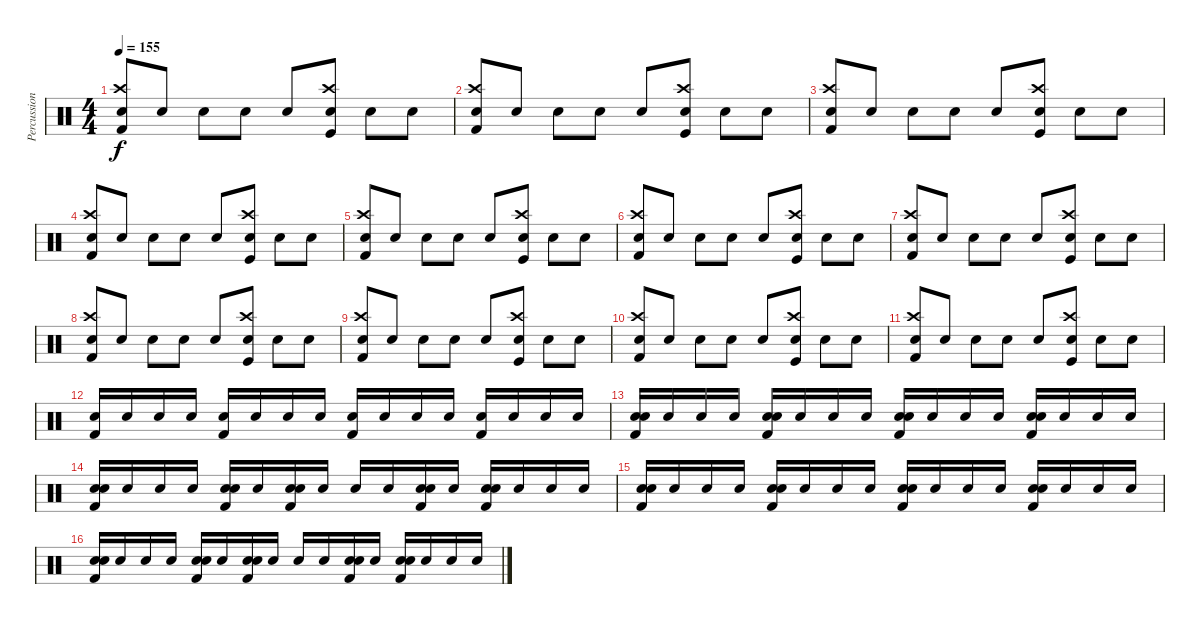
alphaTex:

\track ("Percussion" "Percussion") {instrument percussion}
\staff {score}
\articulation defaults
\ts (4 4)
\tempo 155
\clef neutral
\ks c
("Snare (hit) 2" "Crash high (hit)" "Kick (hit) 2").8{dy f} "Snare (hit) 2".8 "Snare (hit) 2".8 "Snare (hit) 2".8 "Snare (hit) 2".8 ("Snare (hit) 2" "Crash high (hit)" "Kick (hit)").8 "Snare (hit) 2".8 "Snare (hit) 2".8 |
("Snare (hit) 2" "Crash high (hit)" "Kick (hit) 2").8 "Snare (hit) 2".8 "Snare (hit) 2".8 "Snare (hit) 2".8 "Snare (hit) 2".8 ("Snare (hit) 2" "Crash high (hit)" "Kick (hit)").8 "Snare (hit) 2".8 "Snare (hit) 2".8 |
("Snare (hit) 2" "Crash high (hit)" "Kick (hit) 2").8 "Snare (hit) 2".8 "Snare (hit) 2".8 "Snare (hit) 2".8 "Snare (hit) 2".8 ("Snare (hit) 2" "Crash high (hit)" "Kick (hit)").8 "Snare (hit) 2".8 "Snare (hit) 2".8 |
("Snare (hit) 2" "Crash high (hit)" "Kick (hit) 2").8 "Snare (hit) 2".8 "Snare (hit) 2".8 "Snare (hit) 2".8 "Snare (hit) 2".8 ("Snare (hit) 2" "Crash high (hit)" "Kick (hit)").8 "Snare (hit) 2".8 "Snare (hit) 2".8 |
("Snare (hit) 2" "Crash high (hit)" "Kick (hit) 2").8 "Snare (hit) 2".8 "Snare (hit) 2".8 "Snare (hit) 2".8 "Snare (hit) 2".8 ("Snare (hit) 2" "Crash high (hit)" "Kick (hit)").8 "Snare (hit) 2".8 "Snare (hit) 2".8 |
("Snare (hit) 2" "Crash high (hit)" "Kick (hit) 2").8 "Snare (hit) 2".8 "Snare (hit) 2".8 "Snare (hit) 2".8 "Snare (hit) 2".8 ("Snare (hit) 2" "Crash high (hit)" "Kick (hit)").8 "Snare (hit) 2".8 "Snare (hit) 2".8 |
("Snare (hit) 2" "Crash high (hit)" "Kick (hit) 2").8 "Snare (hit) 2".8 "Snare (hit) 2".8 "Snare (hit) 2".8 "Snare (hit) 2".8 ("Snare (hit) 2" "Crash high (hit)" "Kick (hit)").8 "Snare (hit) 2".8 "Snare (hit) 2".8 |
("Snare (hit) 2" "Crash high (hit)" "Kick (hit) 2").8 "Snare (hit) 2".8 "Snare (hit) 2".8 "Snare (hit) 2".8 "Snare (hit) 2".8 ("Snare (hit) 2" "Crash high (hit)" "Kick (hit)").8 "Snare (hit) 2".8 "Snare (hit) 2".8 |
("Snare (hit) 2" "Crash high (hit)" "Kick (hit) 2").8 "Snare (hit) 2".8 "Snare (hit) 2".8 "Snare (hit) 2".8 "Snare (hit) 2".8 ("Snare (hit) 2" "Crash high (hit)" "Kick (hit)").8 "Snare (hit) 2".8 "Snare (hit) 2".8 |
("Snare (hit) 2" "Crash high (hit)" "Kick (hit) 2").8 "Snare (hit) 2".8 "Snare (hit) 2".8 "Snare (hit) 2".8 "Snare (hit) 2".8 ("Snare (hit) 2" "Crash high (hit)" "Kick (hit)").8 "Snare (hit) 2".8 "Snare (hit) 2".8 |
("Snare (hit) 2" "Crash high (hit)" "Kick (hit) 2").8 "Snare (hit) 2".8 "Snare (hit) 2".8 "Snare (hit) 2".8 "Snare (hit) 2".8 ("Snare (hit) 2" "Crash high (hit)" "Kick (hit)").8 "Snare (hit) 2".8 "Snare (hit) 2".8 |
("Snare (hit) 2" "Kick (hit) 2").16 "Snare (hit) 2".16 "Snare (hit) 2".16 "Snare (hit) 2".16 ("Snare (hit) 2" "Kick (hit) 2").16 "Snare (hit) 2".16 "Snare (hit) 2".16 "Snare (hit) 2".16 ("Snare (hit) 2" "Kick (hit) 2").16 "Snare (hit) 2".16 "Snare (hit) 2".16 "Snare (hit) 2".16 ("Snare (hit) 2" "Kick (hit) 2").16 "Snare (hit) 2".16 "Snare (hit) 2".16 "Snare (hit) 2".16 |
("Snare (hit) 2" "Snare (hit) 2" "Kick (hit) 2").16 "Snare (hit) 2".16 "Snare (hit) 2".16 "Snare (hit) 2".16 ("Snare (hit) 2" "Snare (hit) 2" "Kick (hit) 2").16 "Snare (hit) 2".16 "Snare (hit) 2".16 "Snare (hit) 2".16 ("Snare (hit) 2" "Snare (hit) 2" "Kick (hit) 2").16 "Snare (hit) 2".16 "Snare (hit) 2".16 "Snare (hit) 2".16 ("Snare (hit) 2" "Snare (hit) 2" "Kick (hit) 2").16 "Snare (hit) 2".16 "Snare (hit) 2".16 "Snare (hit) 2".16 |
("Snare (hit) 2" "Snare (hit) 2" "Kick (hit) 2").16 "Snare (hit) 2".16 "Snare (hit) 2".16 "Snare (hit) 2".16 ("Snare (hit) 2" "Snare (hit) 2" "Kick (hit) 2").16 "Snare (hit) 2".16 ("Snare (hit) 2" "Snare (hit) 2" "Kick (hit) 2").16 "Snare (hit) 2".16 "Snare (hit) 2".16 "Snare (hit) 2".16 ("Snare (hit) 2" "Snare (hit) 2" "Kick (hit) 2").16 "Snare (hit) 2".16 ("Snare (hit) 2" "Snare (hit) 2" "Kick (hit) 2").16 "Snare (hit) 2".16 "Snare (hit) 2".16 "Snare (hit) 2".16 |
("Snare (hit) 2" "Snare (hit) 2" "Kick (hit) 2").16 "Snare (hit) 2".16 "Snare (hit) 2".16 "Snare (hit) 2".16 ("Snare (hit) 2" "Snare (hit) 2" "Kick (hit) 2").16 "Snare (hit) 2".16 "Snare (hit) 2".16 "Snare (hit) 2".16 ("Snare (hit) 2" "Snare (hit) 2" "Kick (hit) 2").16 "Snare (hit) 2".16 "Snare (hit) 2".16 "Snare (hit) 2".16 ("Snare (hit) 2" "Snare (hit) 2" "Kick (hit) 2").16 "Snare (hit) 2".16 "Snare (hit) 2".16 "Snare (hit) 2".16 |
("Snare (hit) 2" "Snare (hit) 2" "Kick (hit) 2").16 "Snare (hit) 2".16 "Snare (hit) 2".16 "Snare (hit) 2".16 ("Snare (hit) 2" "Snare (hit) 2" "Kick (hit) 2").16 "Snare (hit) 2".16 ("Snare (hit) 2" "Snare (hit) 2" "Kick (hit) 2").16 "Snare (hit) 2".16 "Snare (hit) 2".16 "Snare (hit) 2".16 ("Snare (hit) 2" "Snare (hit) 2" "Kick (hit) 2").16 "Snare (hit) 2".16 ("Snare (hit) 2" "Snare (hit) 2" "Kick (hit) 2").16 "Snare (hit) 2".16 "Snare (hit) 2".16 "Snare (hit) 2".16
